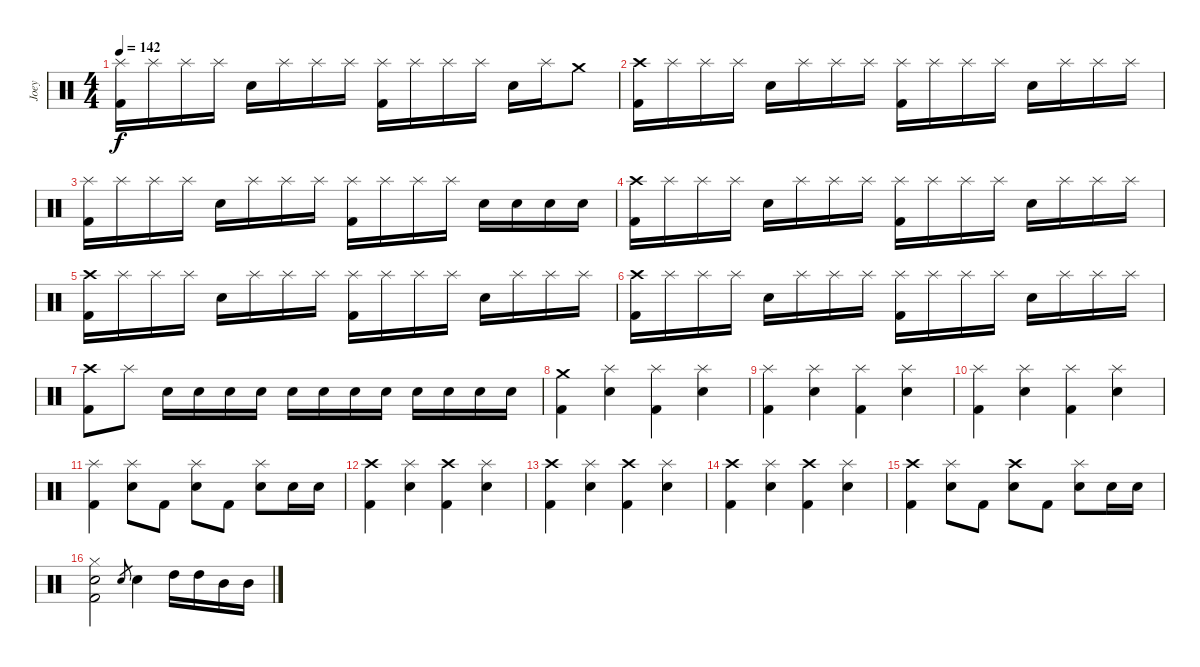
\track ("Joey" "Joey") {instrument percussion}
\staff {score}
\articulation defaults
\ts (4 4)
\tempo 142
\clef neutral
\ks c
("Splash (hit)" "Kick (hit) 2").16{dy f} "Splash (hit)".16 "Splash (hit)".16 "Splash (hit)".16 "Snare (hit) 2".16 "Splash (hit)".16 "Splash (hit)".16 "Splash (hit)".16 ("Splash (hit)" "Kick (hit) 2").16 "Splash (hit)".16 "Splash (hit)".16 "Splash (hit)".16 "Snare (hit) 2".16 "Splash (hit)".16 "Crash medium (hit)".8 |
("Crash high (hit)" "Kick (hit) 2").16 "Splash (hit)".16 "Splash (hit)".16 "Splash (hit)".16 "Snare (hit) 2".16 "Splash (hit)".16 "Splash (hit)".16 "Splash (hit)".16 ("Splash (hit)" "Kick (hit) 2").16 "Splash (hit)".16 "Splash (hit)".16 "Splash (hit)".16 "Snare (hit) 2".16 "Splash (hit)".16 "Splash (hit)".16 "Splash (hit)".16 |
("Splash (hit)" "Kick (hit) 2").16 "Splash (hit)".16 "Splash (hit)".16 "Splash (hit)".16 "Snare (hit) 2".16 "Splash (hit)".16 "Splash (hit)".16 "Splash (hit)".16 ("Splash (hit)" "Kick (hit) 2").16 "Splash (hit)".16 "Splash (hit)".16 "Splash (hit)".16 "Snare (hit) 2".16 "Snare (hit) 2".16 "Snare (hit) 2".16 "Snare (hit) 2".16 |
("Crash high (hit)" "Kick (hit) 2").16 "Splash (hit)".16 "Splash (hit)".16 "Splash (hit)".16 "Snare (hit) 2".16 "Splash (hit)".16 "Splash (hit)".16 "Splash (hit)".16 ("Splash (hit)" "Kick (hit) 2").16 "Splash (hit)".16 "Splash (hit)".16 "Splash (hit)".16 "Snare (hit) 2".16 "Splash (hit)".16 "Splash (hit)".16 "Splash (hit)".16 |
("Crash high (hit)" "Kick (hit) 2").16 "Splash (hit)".16 "Splash (hit)".16 "Splash (hit)".16 "Snare (hit) 2".16 "Splash (hit)".16 "Splash (hit)".16 "Splash (hit)".16 ("Splash (hit)" "Kick (hit) 2").16 "Splash (hit)".16 "Splash (hit)".16 "Splash (hit)".16 "Snare (hit) 2".16 "Splash (hit)".16 "Splash (hit)".16 "Splash (hit)".16 |
("Crash high (hit)" "Kick (hit) 2").16 "Splash (hit)".16 "Splash (hit)".16 "Splash (hit)".16 "Snare (hit) 2".16 "Splash (hit)".16 "Splash (hit)".16 "Splash (hit)".16 ("Splash (hit)" "Kick (hit) 2").16 "Splash (hit)".16 "Splash (hit)".16 "Splash (hit)".16 "Snare (hit) 2".16 "Splash (hit)".16 "Splash (hit)".16 "Splash (hit)".16 |
("Crash high (hit)" "Kick (hit) 2").8 "Splash (hit)".8 "Snare (hit) 2".16 "Snare (hit) 2".16 "Snare (hit) 2".16 "Snare (hit) 2".16 "Snare (hit) 2".16 "Snare (hit) 2".16 "Snare (hit) 2".16 "Snare (hit) 2".16 "Snare (hit) 2".16 "Snare (hit) 2".16 "Snare (hit) 2".16 "Snare (hit) 2".16 |
("Crash medium (hit)" "Kick (hit) 2").4 ("Splash (hit)" "Snare (hit) 2").4 ("Splash (hit)" "Kick (hit) 2").4 ("Splash (hit)" "Snare (hit) 2").4 |
("Splash (hit)" "Kick (hit) 2").4 ("Splash (hit)" "Snare (hit) 2").4 ("Splash (hit)" "Kick (hit) 2").4 ("Splash (hit)" "Snare (hit) 2").4 |
("Splash (hit)" "Kick (hit) 2").4 ("Splash (hit)" "Snare (hit) 2").4 ("Splash (hit)" "Kick (hit) 2").4 ("Splash (hit)" "Snare (hit) 2").4 |
("Splash (hit)" "Kick (hit) 2").4 ("Splash (hit)" "Snare (hit) 2").8 "Kick (hit) 2".8 ("Splash (hit)" "Snare (hit) 2").8 "Kick (hit) 2".8 ("Splash (hit)" "Snare (hit) 2").8 "Snare (hit) 2".16 "Snare (hit) 2".16 |
("Crash high (hit)" "Kick (hit) 2").4 ("Splash (hit)" "Snare (hit) 2").4 ("Crash high (hit)" "Kick (hit) 2").4 ("Splash (hit)" "Snare (hit) 2").4 |
("Crash high (hit)" "Kick (hit) 2").4 ("Splash (hit)" "Snare (hit) 2").4 ("Crash high (hit)" "Kick (hit) 2").4 ("Splash (hit)" "Snare (hit) 2").4 |
("Crash high (hit)" "Kick (hit) 2").4 ("Splash (hit)" "Snare (hit) 2").4 ("Crash high (hit)" "Kick (hit) 2").4 ("Splash (hit)" "Snare (hit) 2").4 |
("Crash high (hit)" "Kick (hit) 2").4 ("Splash (hit)" "Snare (hit) 2").8 "Kick (hit) 2".8 ("Crash high (hit)" "Snare (hit) 2").8 "Kick (hit) 2".8 ("Splash (hit)" "Snare (hit) 2").8 "Snare (hit) 2".16 "Snare (hit) 2".16 |
("Hi-Hat (closed)" "Snare (hit) 2" "Kick (hit) 2").2 "Snare (hit) 2".8{gr} "Snare (hit) 2".4 "High Tom (hit)".16 "High Tom (hit)".16 "Mid Tom (hit)".16 "Mid Tom (hit)".16
